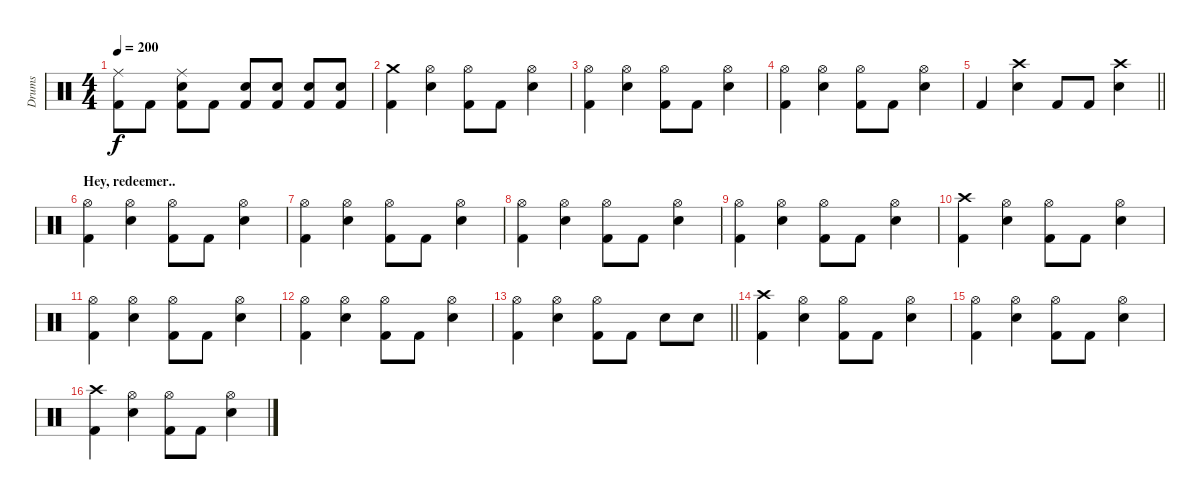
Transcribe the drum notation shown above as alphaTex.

\track ("Drums" "Drums") {instrument percussion}
\staff {score}
\articulation defaults
\ts (4 4)
\tempo 200
\clef neutral
\ks c
("Ride (middle)" "Kick (hit) 2").8{dy f} "Kick (hit) 2".8 ("Ride (middle)" "Snare (hit) 2" "Kick (hit) 2").8 "Kick (hit) 2".8 ("Snare (hit) 2" "Kick (hit) 2").8 ("Snare (hit) 2" "Kick (hit) 2").8 ("Snare (hit) 2" "Kick (hit) 2").8 ("Snare (hit) 2" "Kick (hit) 2").8 |
("Crash medium (hit)" "Kick (hit) 2").4 ("Hi-Hat (open)" "Snare (hit) 2").4 ("Hi-Hat (open)" "Kick (hit) 2").8 "Kick (hit) 2".8 ("Hi-Hat (open)" "Snare (hit) 2").4 |
("Hi-Hat (open)" "Kick (hit) 2").4 ("Hi-Hat (open)" "Snare (hit) 2").4 ("Hi-Hat (open)" "Kick (hit) 2").8 "Kick (hit) 2".8 ("Hi-Hat (open)" "Snare (hit) 2").4 |
("Hi-Hat (open)" "Kick (hit) 2").4 ("Hi-Hat (open)" "Snare (hit) 2").4 ("Hi-Hat (open)" "Kick (hit) 2").8 "Kick (hit) 2".8 ("Hi-Hat (open)" "Snare (hit) 2").4 |
\barLineRight lightlight "Kick (hit) 2".4
("Crash high (hit)" "Snare (hit) 2").4 "Kick (hit) 2".8 "Kick (hit) 2".8 ("Crash high (hit)" "Snare (hit) 2").4 |
\section ("" "Hey, redeemer..")
("Hi-Hat (open)" "Kick (hit) 2").4 ("Hi-Hat (open)" "Snare (hit) 2").4 ("Hi-Hat (open)" "Kick (hit) 2").8 "Kick (hit) 2".8 ("Hi-Hat (open)" "Snare (hit) 2").4 |
("Hi-Hat (open)" "Kick (hit) 2").4 ("Hi-Hat (open)" "Snare (hit) 2").4 ("Hi-Hat (open)" "Kick (hit) 2").8 "Kick (hit) 2".8 ("Hi-Hat (open)" "Snare (hit) 2").4 |
("Hi-Hat (open)" "Kick (hit) 2").4 ("Hi-Hat (open)" "Snare (hit) 2").4 ("Hi-Hat (open)" "Kick (hit) 2").8 "Kick (hit) 2".8 ("Hi-Hat (open)" "Snare (hit) 2").4 |
("Hi-Hat (open)" "Kick (hit) 2").4 ("Hi-Hat (open)" "Snare (hit) 2").4 ("Hi-Hat (open)" "Kick (hit) 2").8 "Kick (hit) 2".8 ("Hi-Hat (open)" "Snare (hit) 2").4 |
("Crash high (hit)" "Kick (hit) 2").4 ("Hi-Hat (open)" "Snare (hit) 2").4 ("Hi-Hat (open)" "Kick (hit) 2").8 "Kick (hit) 2".8 ("Hi-Hat (open)" "Snare (hit) 2").4 |
("Hi-Hat (open)" "Kick (hit) 2").4 ("Hi-Hat (open)" "Snare (hit) 2").4 ("Hi-Hat (open)" "Kick (hit) 2").8 "Kick (hit) 2".8 ("Hi-Hat (open)" "Snare (hit) 2").4 |
("Hi-Hat (open)" "Kick (hit) 2").4 ("Hi-Hat (open)" "Snare (hit) 2").4 ("Hi-Hat (open)" "Kick (hit) 2").8 "Kick (hit) 2".8 ("Hi-Hat (open)" "Snare (hit) 2").4 |
\barLineRight lightlight
("Hi-Hat (open)" "Kick (hit) 2").4 ("Hi-Hat (open)" "Snare (hit) 2").4 ("Hi-Hat (open)" "Kick (hit) 2").8 "Kick (hit) 2".8 "Snare (hit) 2".8 "Snare (hit) 2".8 |
\section ("" "")
("Crash high (hit)" "Kick (hit) 2").4 ("Hi-Hat (open)" "Snare (hit) 2").4 ("Hi-Hat (open)" "Kick (hit) 2").8 "Kick (hit) 2".8 ("Hi-Hat (open)" "Snare (hit) 2").4 |
("Hi-Hat (open)" "Kick (hit) 2").4 ("Hi-Hat (open)" "Snare (hit) 2").4 ("Hi-Hat (open)" "Kick (hit) 2").8 "Kick (hit) 2".8 ("Hi-Hat (open)" "Snare (hit) 2").4 |
("Crash high (hit)" "Kick (hit) 2").4 ("Hi-Hat (open)" "Snare (hit) 2").4 ("Hi-Hat (open)" "Kick (hit) 2").8 "Kick (hit) 2".8 ("Hi-Hat (open)" "Snare (hit) 2").4
